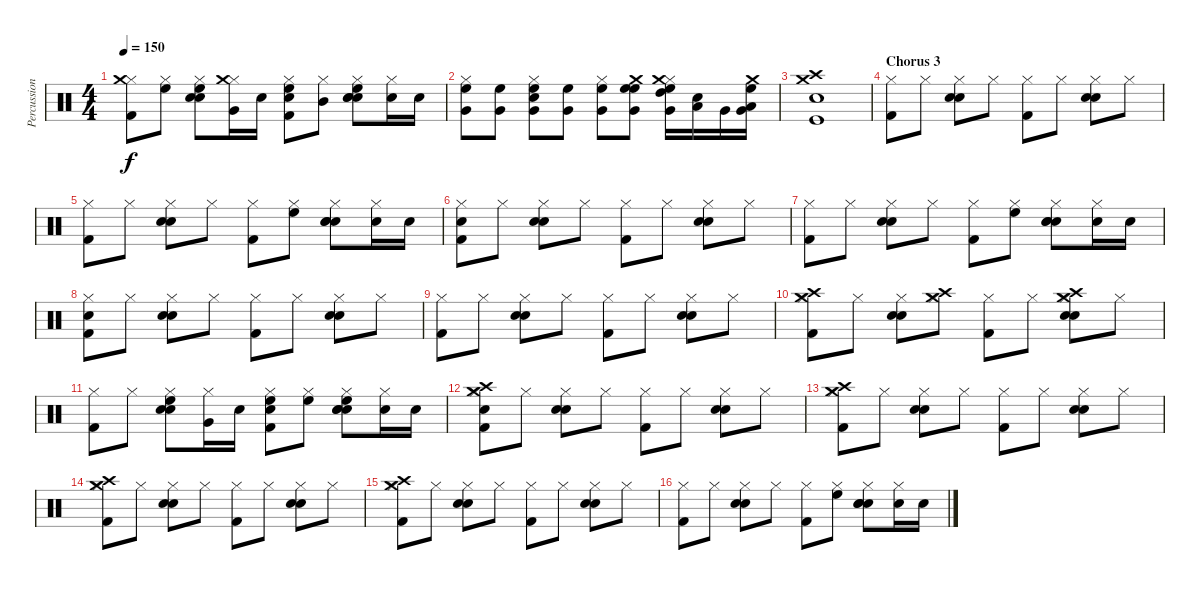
\track ("Percussion" "Percussion") {instrument percussion}
\staff {score}
\articulation defaults
\ts (4 4)
\tempo 150
\clef neutral
\ks c
("Hi-Hat (closed)" "Kick (hit) 2" "Crash medium (hit)").8{dy f} ("Hi-Hat (closed)" "High Floor Tom (hit)").8 ("Hi-Hat (closed)" "Snare (hit) 2" "Electric Snare (hit)" "High Floor Tom (hit)").8 ("Hi-Hat (closed)" "Very Low Tom (hit)" "Crash medium (hit)").16 "Snare (hit) 2".16 ("Hi-Hat (closed)" "Kick (hit) 2" "Snare (hit) 2" "High Floor Tom (hit)").8 ("Hi-Hat (closed)" "Mid Tom (hit)").8 ("Hi-Hat (closed)" "Snare (hit) 2" "Electric Snare (hit)" "Snare (hit) 2" "High Floor Tom (hit)").8 ("Hi-Hat (closed)" "Snare (hit) 2").16 "Snare (hit) 2".16 |
("Hi-Hat (closed)" "High Floor Tom (hit)" "Very Low Tom (hit)").8 ("High Floor Tom (hit)" "Very Low Tom (hit)").8 ("Hi-Hat (closed)" "High Floor Tom (hit)" "Snare (hit) 2" "Very Low Tom (hit)").8 ("High Floor Tom (hit)" "Very Low Tom (hit)").8 ("Hi-Hat (closed)" "High Floor Tom (hit)" "Very Low Tom (hit)").8 ("High Floor Tom (hit)" "High Floor Tom (hit)" "Very Low Tom (hit)" "Crash medium (hit)").8 ("Hi-Hat (closed)" "High Floor Tom (hit)" "High Tom (hit)" "Very Low Tom (hit)" "Crash medium (hit)").16 ("Low Tom (hit)" "Snare (hit) 2").16 "Very Low Tom (hit)".16 ("High Floor Tom (hit)" "Low Tom (hit)" "Very Low Tom (hit)" "Crash medium (hit)").16 |
("Kick (hit)" "Snare (hit) 2" "Crash high (hit)" "Crash medium (hit)").1 |
\section ("" "Chorus 3")
("Hi-Hat (closed)" "Kick (hit) 2").8 "Hi-Hat (closed)".8 ("Hi-Hat (closed)" "Snare (hit) 2" "Electric Snare (hit)").8 "Hi-Hat (closed)".8 ("Hi-Hat (closed)" "Kick (hit) 2").8 "Hi-Hat (closed)".8 ("Hi-Hat (closed)" "Snare (hit) 2" "Electric Snare (hit)").8 "Hi-Hat (closed)".8 |
("Hi-Hat (closed)" "Kick (hit) 2").8 "Hi-Hat (closed)".8 ("Hi-Hat (closed)" "Snare (hit) 2" "Electric Snare (hit)").8 "Hi-Hat (closed)".8 ("Hi-Hat (closed)" "Kick (hit) 2").8 ("Hi-Hat (closed)" "High Floor Tom (hit)").8 ("Hi-Hat (closed)" "Snare (hit) 2" "Electric Snare (hit)" "Snare (hit) 2").8 ("Hi-Hat (closed)" "Snare (hit) 2").16 "Snare (hit) 2".16 |
("Hi-Hat (closed)" "Kick (hit) 2" "Snare (hit) 2").8 "Hi-Hat (closed)".8 ("Hi-Hat (closed)" "Snare (hit) 2" "Electric Snare (hit)").8 "Hi-Hat (closed)".8 ("Hi-Hat (closed)" "Kick (hit) 2").8 "Hi-Hat (closed)".8 ("Hi-Hat (closed)" "Snare (hit) 2" "Electric Snare (hit)").8 "Hi-Hat (closed)".8 |
("Hi-Hat (closed)" "Kick (hit) 2").8 "Hi-Hat (closed)".8 ("Hi-Hat (closed)" "Snare (hit) 2" "Electric Snare (hit)").8 "Hi-Hat (closed)".8 ("Hi-Hat (closed)" "Kick (hit) 2").8 ("Hi-Hat (closed)" "High Floor Tom (hit)").8 ("Hi-Hat (closed)" "Snare (hit) 2" "Electric Snare (hit)" "Snare (hit) 2").8 ("Hi-Hat (closed)" "Snare (hit) 2").16 "Snare (hit) 2".16 |
("Hi-Hat (closed)" "Kick (hit) 2" "Snare (hit) 2").8 "Hi-Hat (closed)".8 ("Hi-Hat (closed)" "Snare (hit) 2" "Electric Snare (hit)").8 "Hi-Hat (closed)".8 ("Hi-Hat (closed)" "Kick (hit) 2").8 "Hi-Hat (closed)".8 ("Hi-Hat (closed)" "Snare (hit) 2" "Electric Snare (hit)").8 "Hi-Hat (closed)".8 |
("Hi-Hat (closed)" "Kick (hit) 2").8 "Hi-Hat (closed)".8 ("Hi-Hat (closed)" "Snare (hit) 2" "Electric Snare (hit)").8 "Hi-Hat (closed)".8 ("Hi-Hat (closed)" "Kick (hit) 2").8 "Hi-Hat (closed)".8 ("Hi-Hat (closed)" "Snare (hit) 2" "Electric Snare (hit)").8 "Hi-Hat (closed)".8 |
("Hi-Hat (closed)" "Kick (hit) 2" "Crash high (hit)" "Crash medium (hit)").8 "Hi-Hat (closed)".8 ("Hi-Hat (closed)" "Snare (hit) 2" "Electric Snare (hit)").8 ("Hi-Hat (closed)" "Crash high (hit)" "Crash medium (hit)").8 ("Hi-Hat (closed)" "Kick (hit) 2").8 "Hi-Hat (closed)".8 ("Hi-Hat (closed)" "Snare (hit) 2" "Electric Snare (hit)" "Crash high (hit)" "Crash medium (hit)").8 "Hi-Hat (closed)".8 |
("Hi-Hat (closed)" "Kick (hit) 2").8 "Hi-Hat (closed)".8 ("Hi-Hat (closed)" "Snare (hit) 2" "Electric Snare (hit)" "High Floor Tom (hit)").8 ("Hi-Hat (closed)" "Very Low Tom (hit)").16 "Snare (hit) 2".16 ("Hi-Hat (closed)" "Kick (hit) 2" "Snare (hit) 2" "High Floor Tom (hit)").8 ("Hi-Hat (closed)" "High Floor Tom (hit)").8 ("Hi-Hat (closed)" "Snare (hit) 2" "Electric Snare (hit)" "Snare (hit) 2" "High Floor Tom (hit)").8 ("Hi-Hat (closed)" "Snare (hit) 2").16 "Snare (hit) 2".16 |
("Hi-Hat (closed)" "Kick (hit) 2" "Crash high (hit)" "Snare (hit) 2" "Crash medium (hit)").8 "Hi-Hat (closed)".8 ("Hi-Hat (closed)" "Snare (hit) 2" "Electric Snare (hit)").8 "Hi-Hat (closed)".8 ("Hi-Hat (closed)" "Kick (hit) 2").8 "Hi-Hat (closed)".8 ("Hi-Hat (closed)" "Snare (hit) 2" "Electric Snare (hit)").8 "Hi-Hat (closed)".8 |
("Hi-Hat (closed)" "Kick (hit) 2" "Crash medium (hit)" "Crash high (hit)").8 "Hi-Hat (closed)".8 ("Hi-Hat (closed)" "Snare (hit) 2" "Electric Snare (hit)").8 "Hi-Hat (closed)".8 ("Hi-Hat (closed)" "Kick (hit) 2").8 "Hi-Hat (closed)".8 ("Hi-Hat (closed)" "Snare (hit) 2" "Electric Snare (hit)").8 "Hi-Hat (closed)".8 |
("Hi-Hat (closed)" "Kick (hit) 2" "Crash medium (hit)" "Crash high (hit)").8 "Hi-Hat (closed)".8 ("Hi-Hat (closed)" "Snare (hit) 2" "Electric Snare (hit)").8 "Hi-Hat (closed)".8 ("Hi-Hat (closed)" "Kick (hit) 2").8 "Hi-Hat (closed)".8 ("Hi-Hat (closed)" "Snare (hit) 2" "Electric Snare (hit)").8 "Hi-Hat (closed)".8 |
("Hi-Hat (closed)" "Kick (hit) 2" "Crash medium (hit)" "Crash high (hit)").8 "Hi-Hat (closed)".8 ("Hi-Hat (closed)" "Snare (hit) 2" "Electric Snare (hit)").8 "Hi-Hat (closed)".8 ("Hi-Hat (closed)" "Kick (hit) 2").8 "Hi-Hat (closed)".8 ("Hi-Hat (closed)" "Snare (hit) 2" "Electric Snare (hit)").8 "Hi-Hat (closed)".8 |
("Hi-Hat (closed)" "Kick (hit) 2").8 "Hi-Hat (closed)".8 ("Hi-Hat (closed)" "Snare (hit) 2" "Electric Snare (hit)").8 "Hi-Hat (closed)".8 ("Hi-Hat (closed)" "Kick (hit) 2").8 ("Hi-Hat (closed)" "High Floor Tom (hit)").8 ("Hi-Hat (closed)" "Snare (hit) 2" "Electric Snare (hit)" "Snare (hit) 2").8 ("Hi-Hat (closed)" "Snare (hit) 2").16 "Snare (hit) 2".16
